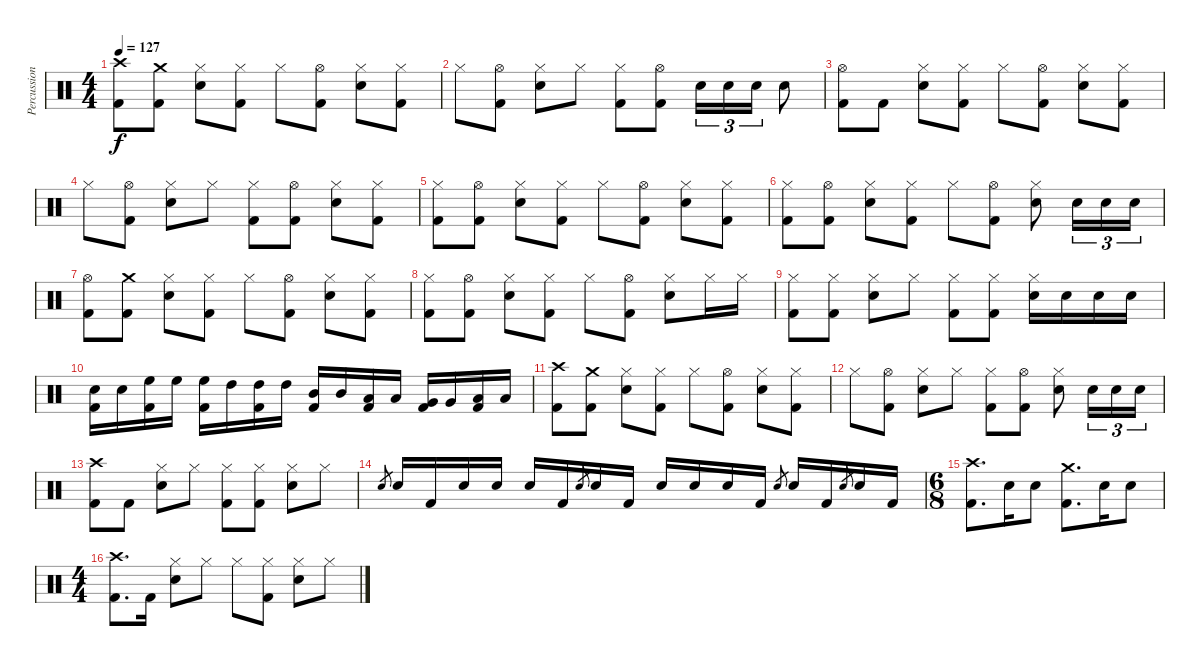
\track ("Percussion" "Percussion") {instrument percussion}
\staff {score}
\articulation defaults
\ts (4 4)
\tempo 127
\clef neutral
\ks c
("Kick (hit) 2" "Crash high (hit)").8{dy f} ("Kick (hit) 2" "Crash medium (hit)").8 ("Snare (hit) 2" "Hi-Hat (closed)").8 ("Kick (hit) 2" "Hi-Hat (closed)").8 "Hi-Hat (closed)".8 ("Kick (hit) 2" "Hi-Hat (open)").8 ("Snare (hit) 2" "Hi-Hat (closed)").8 ("Kick (hit) 2" "Hi-Hat (closed)").8 |
"Hi-Hat (closed)".8 ("Kick (hit) 2" "Hi-Hat (open)").8 ("Snare (hit) 2" "Hi-Hat (closed)").8 "Hi-Hat (closed)".8 ("Kick (hit) 2" "Hi-Hat (closed)").8 ("Kick (hit) 2" "Hi-Hat (open)").8 "Snare (hit) 2".16{tu (3 2)} "Snare (hit) 2".16{tu (3 2)} "Snare (hit) 2".16{tu (3 2)} "Snare (hit) 2".8 |
("Kick (hit) 2" "Hi-Hat (open)").8 "Kick (hit) 2".8 ("Snare (hit) 2" "Hi-Hat (closed)").8 ("Kick (hit) 2" "Hi-Hat (closed)").8 "Hi-Hat (closed)".8 ("Kick (hit) 2" "Hi-Hat (open)").8 ("Snare (hit) 2" "Hi-Hat (closed)").8 ("Kick (hit) 2" "Hi-Hat (closed)").8 |
"Hi-Hat (closed)".8 ("Kick (hit) 2" "Hi-Hat (open)").8 ("Snare (hit) 2" "Hi-Hat (closed)").8 "Hi-Hat (closed)".8 ("Kick (hit) 2" "Hi-Hat (closed)").8 ("Kick (hit) 2" "Hi-Hat (open)").8 ("Snare (hit) 2" "Hi-Hat (closed)").8 ("Kick (hit) 2" "Hi-Hat (closed)").8 |
("Kick (hit) 2" "Hi-Hat (closed)").8 ("Kick (hit) 2" "Hi-Hat (open)").8 ("Snare (hit) 2" "Hi-Hat (closed)").8 ("Kick (hit) 2" "Hi-Hat (closed)").8 "Hi-Hat (closed)".8 ("Kick (hit) 2" "Hi-Hat (open)").8 ("Snare (hit) 2" "Hi-Hat (closed)").8 ("Kick (hit) 2" "Hi-Hat (closed)").8 |
("Kick (hit) 2" "Hi-Hat (closed)").8 ("Kick (hit) 2" "Hi-Hat (open)").8 ("Snare (hit) 2" "Hi-Hat (closed)").8 ("Kick (hit) 2" "Hi-Hat (closed)").8 "Hi-Hat (closed)".8 ("Kick (hit) 2" "Hi-Hat (open)").8 ("Snare (hit) 2" "Hi-Hat (closed)").8 "Snare (hit) 2".16{tu (3 2)} "Snare (hit) 2".16{tu (3 2)} "Snare (hit) 2".16{tu (3 2)} |
("Kick (hit) 2" "Hi-Hat (open)").8 ("Kick (hit) 2" "Crash medium (hit)").8 ("Snare (hit) 2" "Hi-Hat (closed)").8 ("Kick (hit) 2" "Hi-Hat (closed)").8 "Hi-Hat (closed)".8 ("Kick (hit) 2" "Hi-Hat (open)").8 ("Snare (hit) 2" "Hi-Hat (closed)").8 ("Kick (hit) 2" "Hi-Hat (closed)").8 |
("Kick (hit) 2" "Hi-Hat (closed)").8 ("Kick (hit) 2" "Hi-Hat (open)").8 ("Snare (hit) 2" "Hi-Hat (closed)").8 ("Kick (hit) 2" "Hi-Hat (closed)").8 "Hi-Hat (closed)".8 ("Kick (hit) 2" "Hi-Hat (open)").8 ("Snare (hit) 2" "Hi-Hat (closed)").8 "Hi-Hat (closed)".16 "Hi-Hat (closed)".16 |
("Kick (hit) 2" "Hi-Hat (closed)").8 ("Kick (hit) 2" "Hi-Hat (closed)").8 ("Snare (hit) 2" "Hi-Hat (closed)").8 "Hi-Hat (closed)".8 ("Kick (hit) 2" "Hi-Hat (closed)").8 ("Kick (hit) 2" "Hi-Hat (closed)").8 ("Snare (hit) 2" "Hi-Hat (closed)").16 "Snare (hit) 2".16 "Snare (hit) 2".16 "Snare (hit) 2".16 |
("Kick (hit) 2" "Snare (hit) 2").16 "Snare (hit) 2".16 ("Kick (hit) 2" "High Floor Tom (hit)").16 "High Floor Tom (hit)".16 ("Kick (hit) 2" "High Floor Tom (hit)").16 "High Tom (hit)".16 ("Kick (hit) 2" "High Tom (hit)").16 "High Tom (hit)".16 ("Kick (hit) 2" "Mid Tom (hit)").16 "Mid Tom (hit)".16 ("Kick (hit) 2" "Low Tom (hit)").16 "Low Tom (hit)".16 ("Kick (hit) 2" "Very Low Tom (hit)").16 "Very Low Tom (hit)".16 ("Kick (hit) 2" "Low Floor Tom (hit)").16 "Low Floor Tom (hit)".16 |
("Kick (hit) 2" "Crash high (hit)").8 ("Kick (hit) 2" "Crash medium (hit)").8 ("Snare (hit) 2" "Hi-Hat (closed)").8 ("Kick (hit) 2" "Hi-Hat (closed)").8 "Hi-Hat (closed)".8 ("Kick (hit) 2" "Hi-Hat (open)").8 ("Snare (hit) 2" "Hi-Hat (closed)").8 ("Kick (hit) 2" "Hi-Hat (closed)").8 |
"Hi-Hat (closed)".8 ("Kick (hit) 2" "Hi-Hat (open)").8 ("Snare (hit) 2" "Hi-Hat (closed)").8 "Hi-Hat (closed)".8 ("Kick (hit) 2" "Hi-Hat (closed)").8 ("Kick (hit) 2" "Hi-Hat (open)").8 ("Snare (hit) 2" "Hi-Hat (closed)").8 "Snare (hit) 2".16{tu (3 2)} "Snare (hit) 2".16{tu (3 2)} "Snare (hit) 2".16{tu (3 2)} |
("Kick (hit) 2" "Crash high (hit)").8 "Kick (hit) 2".8 ("Snare (hit) 2" "Hi-Hat (closed)").8 "Hi-Hat (closed)".8 ("Kick (hit) 2" "Hi-Hat (closed)").8 ("Kick (hit) 2" "Hi-Hat (closed)").8 ("Snare (hit) 2" "Hi-Hat (closed)").8 "Hi-Hat (closed)".8 |
"Snare (hit) 2".8{gr} "Snare (hit) 2".16 "Kick (hit) 2".16 "Snare (hit) 2".16 "Snare (hit) 2".16 "Snare (hit) 2".16 "Kick (hit) 2".16 "Snare (hit) 2".8{gr} "Snare (hit) 2".16 "Kick (hit) 2".16 "Snare (hit) 2".16 "Snare (hit) 2".16 "Snare (hit) 2".16 "Kick (hit) 2".16 "Snare (hit) 2".8{gr} "Snare (hit) 2".16 "Kick (hit) 2".16 "Snare (hit) 2".8{gr} "Snare (hit) 2".16 "Kick (hit) 2".16 |
\ts (6 8)
("Kick (hit) 2" "Crash high (hit)").8{d} "Snare (hit) 2".16 "Snare (hit) 2".8 ("Kick (hit) 2" "Crash medium (hit)").8{d} "Snare (hit) 2".16 "Snare (hit) 2".8 |
\ts (4 4)
("Kick (hit) 2" "Crash high (hit)").8{d} "Kick (hit) 2".16 ("Snare (hit) 2" "Hi-Hat (closed)").8 "Hi-Hat (closed)".8 "Hi-Hat (closed)".8 ("Kick (hit) 2" "Hi-Hat (closed)").8 ("Snare (hit) 2" "Hi-Hat (closed)").8 "Hi-Hat (closed)".8
